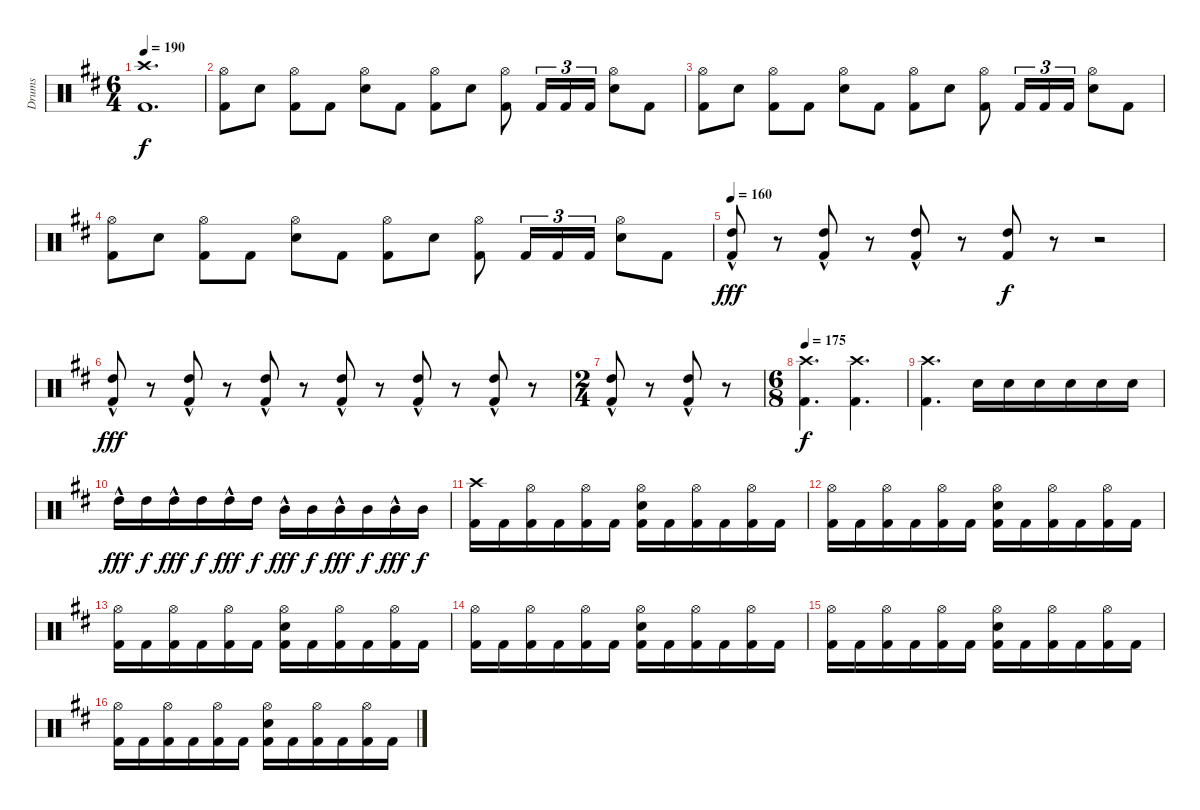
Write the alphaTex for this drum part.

\track ("Drums" "Drums") {instrument percussion}
\staff {score}
\articulation defaults
\ts (6 4)
\tempo 190
\clef neutral
\ks bminor
("Kick (hit) 2" "Crash high (hit)").1{d dy f} |
("Kick (hit) 2" "Hi-Hat (open)").8 "Electric Snare (hit)".8 ("Kick (hit) 2" "Hi-Hat (open)").8 "Kick (hit) 2".8 ("Electric Snare (hit)" "Hi-Hat (open)").8 "Kick (hit) 2".8 ("Kick (hit) 2" "Hi-Hat (open)").8 "Electric Snare (hit)".8 ("Kick (hit) 2" "Hi-Hat (open)").8 "Kick (hit) 2".16{tu (3 2)} "Kick (hit) 2".16{tu (3 2)} "Kick (hit) 2".16{tu (3 2)} ("Electric Snare (hit)" "Hi-Hat (open)").8 "Kick (hit) 2".8 |
("Kick (hit) 2" "Hi-Hat (open)").8 "Electric Snare (hit)".8 ("Kick (hit) 2" "Hi-Hat (open)").8 "Kick (hit) 2".8 ("Electric Snare (hit)" "Hi-Hat (open)").8 "Kick (hit) 2".8 ("Kick (hit) 2" "Hi-Hat (open)").8 "Electric Snare (hit)".8 ("Kick (hit) 2" "Hi-Hat (open)").8 "Kick (hit) 2".16{tu (3 2)} "Kick (hit) 2".16{tu (3 2)} "Kick (hit) 2".16{tu (3 2)} ("Electric Snare (hit)" "Hi-Hat (open)").8 "Kick (hit) 2".8 |
("Kick (hit) 2" "Hi-Hat (open)").8 "Electric Snare (hit)".8 ("Kick (hit) 2" "Hi-Hat (open)").8 "Kick (hit) 2".8 ("Electric Snare (hit)" "Hi-Hat (open)").8 "Kick (hit) 2".8 ("Kick (hit) 2" "Hi-Hat (open)").8 "Electric Snare (hit)".8 ("Kick (hit) 2" "Hi-Hat (open)").8 "Kick (hit) 2".16{tu (3 2)} "Kick (hit) 2".16{tu (3 2)} "Kick (hit) 2".16{tu (3 2)} ("Electric Snare (hit)" "Hi-Hat (open)").8 "Kick (hit) 2".8 |
\tempo 160
("Kick (hit) 2" "High Tom (hit)"{hac}).8{dy fff} r.8 ("Kick (hit) 2" "High Tom (hit)"{hac}).8 r.8 ("Kick (hit) 2" "High Tom (hit)"{hac}).8 r.8 ("Kick (hit) 2" "High Tom (hit)").8{dy f} r.8 r.2 |
("Kick (hit) 2" "High Tom (hit)"{hac}).8{dy fff} r.8 ("Kick (hit) 2" "High Tom (hit)"{hac}).8 r.8 ("Kick (hit) 2" "High Tom (hit)"{hac}).8 r.8 ("Kick (hit) 2" "High Tom (hit)"{hac}).8 r.8 ("Kick (hit) 2" "High Tom (hit)"{hac}).8 r.8 ("Kick (hit) 2" "High Tom (hit)"{hac}).8 r.8 |
\ts (2 4)
("Kick (hit) 2" "High Tom (hit)"{hac}).8 r.8 ("Kick (hit) 2" "High Tom (hit)"{hac}).8 r.8 |
\ts (6 8)
\tempo 175
("Kick (hit) 2" "Crash high (hit)").4{d dy f} ("Kick (hit) 2" "Crash high (hit)").4{d} |
("Kick (hit) 2" "Crash high (hit)").4{d} "Electric Snare (hit)".16 "Electric Snare (hit)".16 "Electric Snare (hit)".16 "Electric Snare (hit)".16 "Electric Snare (hit)".16 "Electric Snare (hit)".16 |
"High Tom (hit)"{hac}.16{dy fff} "High Tom (hit)".16{dy f} "High Tom (hit)"{hac}.16{dy fff} "High Tom (hit)".16{dy f} "High Tom (hit)"{hac}.16{dy fff} "High Tom (hit)".16{dy f} "Mid Tom (hit)"{hac}.16{dy fff} "Mid Tom (hit)".16{dy f} "Mid Tom (hit)"{hac}.16{dy fff} "Mid Tom (hit)".16{dy f} "Mid Tom (hit)"{hac}.16{dy fff} "Mid Tom (hit)".16{dy f} |
("Kick (hit) 2" "Crash high (hit)").16 "Kick (hit) 2".16 ("Kick (hit) 2" "Hi-Hat (open)").16 "Kick (hit) 2".16 ("Kick (hit) 2" "Hi-Hat (open)").16 "Kick (hit) 2".16 ("Kick (hit) 2" "Electric Snare (hit)" "Hi-Hat (open)").16 "Kick (hit) 2".16 ("Kick (hit) 2" "Hi-Hat (open)").16 "Kick (hit) 2".16 ("Kick (hit) 2" "Hi-Hat (open)").16 "Kick (hit) 2".16 |
("Kick (hit) 2" "Hi-Hat (open)").16 "Kick (hit) 2".16 ("Kick (hit) 2" "Hi-Hat (open)").16 "Kick (hit) 2".16 ("Kick (hit) 2" "Hi-Hat (open)").16 "Kick (hit) 2".16 ("Kick (hit) 2" "Electric Snare (hit)" "Hi-Hat (open)").16 "Kick (hit) 2".16 ("Kick (hit) 2" "Hi-Hat (open)").16 "Kick (hit) 2".16 ("Kick (hit) 2" "Hi-Hat (open)").16 "Kick (hit) 2".16 |
("Kick (hit) 2" "Hi-Hat (open)").16 "Kick (hit) 2".16 ("Kick (hit) 2" "Hi-Hat (open)").16 "Kick (hit) 2".16 ("Kick (hit) 2" "Hi-Hat (open)").16 "Kick (hit) 2".16 ("Kick (hit) 2" "Electric Snare (hit)" "Hi-Hat (open)").16 "Kick (hit) 2".16 ("Kick (hit) 2" "Hi-Hat (open)").16 "Kick (hit) 2".16 ("Kick (hit) 2" "Hi-Hat (open)").16 "Kick (hit) 2".16 |
("Kick (hit) 2" "Hi-Hat (open)").16 "Kick (hit) 2".16 ("Kick (hit) 2" "Hi-Hat (open)").16 "Kick (hit) 2".16 ("Kick (hit) 2" "Hi-Hat (open)").16 "Kick (hit) 2".16 ("Kick (hit) 2" "Electric Snare (hit)" "Hi-Hat (open)").16 "Kick (hit) 2".16 ("Kick (hit) 2" "Hi-Hat (open)").16 "Kick (hit) 2".16 ("Kick (hit) 2" "Hi-Hat (open)").16 "Kick (hit) 2".16 |
("Kick (hit) 2" "Hi-Hat (open)").16 "Kick (hit) 2".16 ("Kick (hit) 2" "Hi-Hat (open)").16 "Kick (hit) 2".16 ("Kick (hit) 2" "Hi-Hat (open)").16 "Kick (hit) 2".16 ("Kick (hit) 2" "Electric Snare (hit)" "Hi-Hat (open)").16 "Kick (hit) 2".16 ("Kick (hit) 2" "Hi-Hat (open)").16 "Kick (hit) 2".16 ("Kick (hit) 2" "Hi-Hat (open)").16 "Kick (hit) 2".16 |
("Kick (hit) 2" "Hi-Hat (open)").16 "Kick (hit) 2".16 ("Kick (hit) 2" "Hi-Hat (open)").16 "Kick (hit) 2".16 ("Kick (hit) 2" "Hi-Hat (open)").16 "Kick (hit) 2".16 ("Kick (hit) 2" "Electric Snare (hit)" "Hi-Hat (open)").16 "Kick (hit) 2".16 ("Kick (hit) 2" "Hi-Hat (open)").16 "Kick (hit) 2".16 ("Kick (hit) 2" "Hi-Hat (open)").16 "Kick (hit) 2".16
